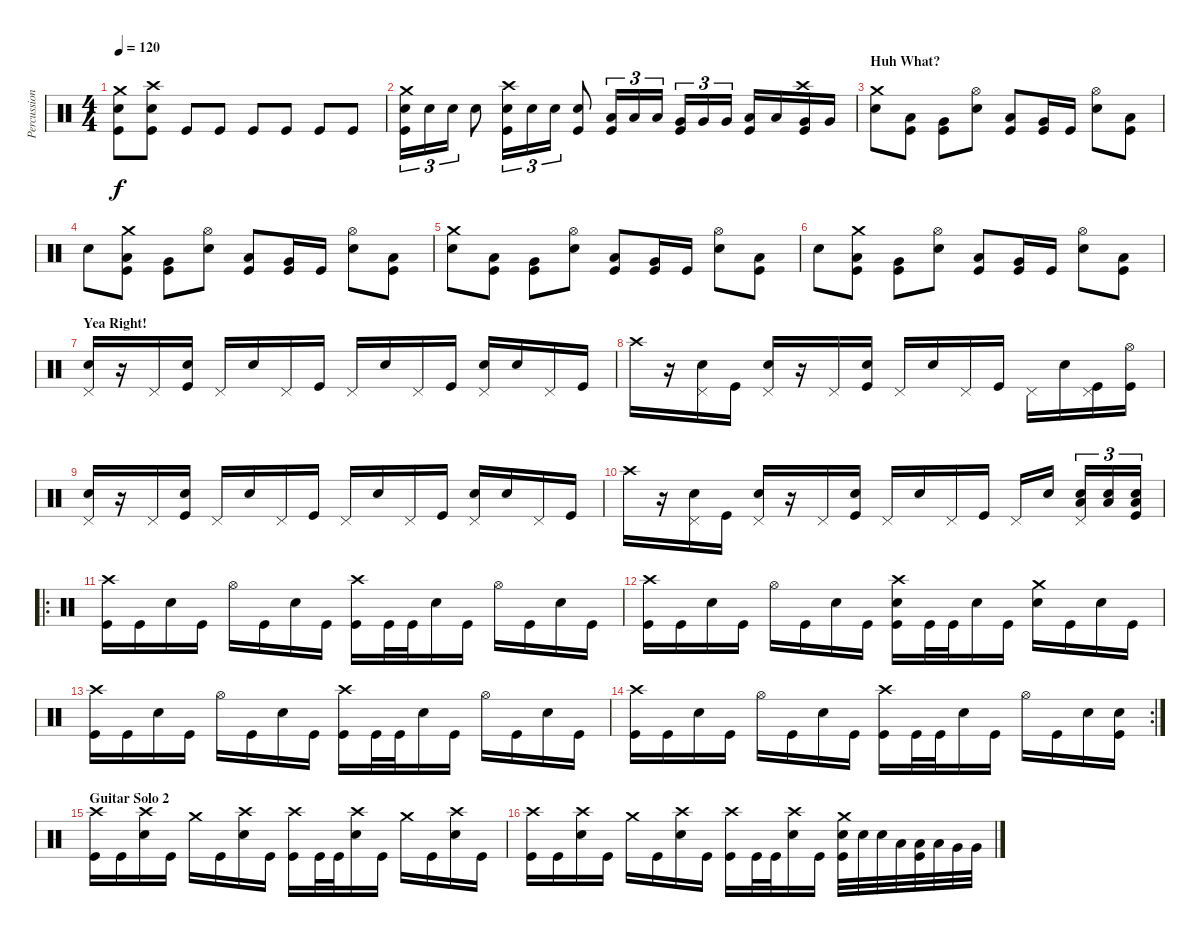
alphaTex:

\track ("Percussions" "Percussion") {instrument percussion}
\staff {score}
\articulation defaults
\ts (4 4)
\tempo 120
\clef neutral
\ks c
("Crash medium (hit)" "Electric Snare (hit)" "Kick (hit)").8{dy f} ("Crash high (hit)" "Electric Snare (hit)" "Kick (hit)").8 "Kick (hit)".8 "Kick (hit)".8 "Kick (hit)".8 "Kick (hit)".8 "Kick (hit)".8 "Kick (hit)".8 |
("Crash medium (hit)" "Electric Snare (hit)" "Kick (hit)").16{tu (3 2)} "Electric Snare (hit)".16{tu (3 2)} "Electric Snare (hit)".16{tu (3 2)} "Electric Snare (hit)".8 ("Crash high (hit)" "Electric Snare (hit)" "Kick (hit)").16{tu (3 2)} "Electric Snare (hit)".16{tu (3 2)} "Electric Snare (hit)".16{tu (3 2)} ("Electric Snare (hit)" "Kick (hit)").8 ("Low Tom (hit)" "Kick (hit)").16{tu (3 2)} "Low Tom (hit)".16{tu (3 2)} "Low Tom (hit)".16{tu (3 2)} ("Very Low Tom (hit)" "Kick (hit)").16{tu (3 2)} "Very Low Tom (hit)".16{tu (3 2)} "Very Low Tom (hit)".16{tu (3 2)} ("Low Tom (hit)" "Kick (hit)").16 "Low Tom (hit)".16 ("Crash high (hit)" "Very Low Tom (hit)" "Kick (hit)").16 "Very Low Tom (hit)".16 |
\section ("" "Huh What?")
("Crash medium (hit)" "Electric Snare (hit)").8 ("Low Tom (hit)" "Kick (hit)").8 ("Very Low Tom (hit)" "Kick (hit)").8 ("Hi-Hat (open)" "Electric Snare (hit)").8 ("Low Tom (hit)" "Kick (hit)").8 ("Very Low Tom (hit)" "Kick (hit)").16 "Kick (hit)".16 ("Hi-Hat (open)" "Electric Snare (hit)").8 ("Low Tom (hit)" "Kick (hit)").8 |
"Electric Snare (hit)".8 ("Crash medium (hit)" "Low Tom (hit)" "Kick (hit)").8 ("Very Low Tom (hit)" "Kick (hit)").8 ("Hi-Hat (open)" "Electric Snare (hit)").8 ("Low Tom (hit)" "Kick (hit)").8 ("Very Low Tom (hit)" "Kick (hit)").16 "Kick (hit)".16 ("Hi-Hat (open)" "Electric Snare (hit)").8 ("Low Tom (hit)" "Kick (hit)").8 |
("Crash medium (hit)" "Electric Snare (hit)").8 ("Low Tom (hit)" "Kick (hit)").8 ("Very Low Tom (hit)" "Kick (hit)").8 ("Hi-Hat (open)" "Electric Snare (hit)").8 ("Low Tom (hit)" "Kick (hit)").8 ("Very Low Tom (hit)" "Kick (hit)").16 "Kick (hit)".16 ("Hi-Hat (open)" "Electric Snare (hit)").8 ("Low Tom (hit)" "Kick (hit)").8 |
"Electric Snare (hit)".8 ("Crash medium (hit)" "Low Tom (hit)" "Kick (hit)").8 ("Very Low Tom (hit)" "Kick (hit)").8 ("Hi-Hat (open)" "Electric Snare (hit)").8 ("Low Tom (hit)" "Kick (hit)").8 ("Very Low Tom (hit)" "Kick (hit)").16 "Kick (hit)".16 ("Hi-Hat (open)" "Electric Snare (hit)").8 ("Low Tom (hit)" "Kick (hit)").8 |
\section ("" "Yea Right!")
("Pedal Hi-Hat (hit)" "Electric Snare (hit)").16 r.16 "Pedal Hi-Hat (hit)".16 ("Kick (hit)" "Electric Snare (hit)").16 "Pedal Hi-Hat (hit)".16 "Electric Snare (hit)".16 "Pedal Hi-Hat (hit)".16 "Kick (hit)".16 "Pedal Hi-Hat (hit)".16 "Electric Snare (hit)".16 "Pedal Hi-Hat (hit)".16 "Kick (hit)".16 ("Pedal Hi-Hat (hit)" "Electric Snare (hit)").16 "Electric Snare (hit)".16 "Pedal Hi-Hat (hit)".16 "Kick (hit)".16 |
"Crash high (hit)".16 r.16 ("Pedal Hi-Hat (hit)" "Electric Snare (hit)").16 "Kick (hit)".16 ("Pedal Hi-Hat (hit)" "Electric Snare (hit)").16 r.16 "Pedal Hi-Hat (hit)".16 ("Kick (hit)" "Electric Snare (hit)").16 "Pedal Hi-Hat (hit)".16 "Electric Snare (hit)".16 "Pedal Hi-Hat (hit)".16 "Kick (hit)".16 "Pedal Hi-Hat (hit)".16 "Electric Snare (hit)".16 ("Pedal Hi-Hat (hit)" "Kick (hit)").16 ("Hi-Hat (open)" "Kick (hit)").16 |
("Pedal Hi-Hat (hit)" "Electric Snare (hit)").16 r.16 "Pedal Hi-Hat (hit)".16 ("Kick (hit)" "Electric Snare (hit)").16 "Pedal Hi-Hat (hit)".16 "Electric Snare (hit)".16 "Pedal Hi-Hat (hit)".16 "Kick (hit)".16 "Pedal Hi-Hat (hit)".16 "Electric Snare (hit)".16 "Pedal Hi-Hat (hit)".16 "Kick (hit)".16 ("Pedal Hi-Hat (hit)" "Electric Snare (hit)").16 "Electric Snare (hit)".16 "Pedal Hi-Hat (hit)".16 "Kick (hit)".16 |
"Crash high (hit)".16 r.16 ("Pedal Hi-Hat (hit)" "Electric Snare (hit)").16 "Kick (hit)".16 ("Pedal Hi-Hat (hit)" "Electric Snare (hit)").16 r.16 "Pedal Hi-Hat (hit)".16 ("Kick (hit)" "Electric Snare (hit)").16 "Pedal Hi-Hat (hit)".16 "Electric Snare (hit)".16 "Pedal Hi-Hat (hit)".16 "Kick (hit)".16 "Pedal Hi-Hat (hit)".16 "Electric Snare (hit)".16 ("Pedal Hi-Hat (hit)" "Electric Snare (hit)" "Low Tom (hit)").16{tu (3 2)} ("Electric Snare (hit)" "Low Tom (hit)").16{tu (3 2)} ("Electric Snare (hit)" "Low Tom (hit)" "Kick (hit)").16{tu (3 2)} |
\ro
("Crash high (hit)" "Kick (hit)").16 "Kick (hit)".16 "Electric Snare (hit)".16 "Kick (hit)".16 "Hi-Hat (open)".16 "Kick (hit)".16 "Electric Snare (hit)".16 "Kick (hit)".16 ("Crash high (hit)" "Kick (hit)").16 "Kick (hit)".32 "Kick (hit)".32 "Electric Snare (hit)".16 "Kick (hit)".16 "Hi-Hat (open)".16 "Kick (hit)".16 "Electric Snare (hit)".16 "Kick (hit)".16 |
("Crash high (hit)" "Kick (hit)").16 "Kick (hit)".16 "Electric Snare (hit)".16 "Kick (hit)".16 "Hi-Hat (open)".16 "Kick (hit)".16 "Electric Snare (hit)".16 "Kick (hit)".16 ("Crash high (hit)" "Electric Snare (hit)" "Kick (hit)").16 "Kick (hit)".32 "Kick (hit)".32 "Electric Snare (hit)".16 "Kick (hit)".16 ("Crash medium (hit)" "Electric Snare (hit)").16 "Kick (hit)".16 "Electric Snare (hit)".16 "Kick (hit)".16 |
("Crash high (hit)" "Kick (hit)").16 "Kick (hit)".16 "Electric Snare (hit)".16 "Kick (hit)".16 "Hi-Hat (open)".16 "Kick (hit)".16 "Electric Snare (hit)".16 "Kick (hit)".16 ("Crash high (hit)" "Kick (hit)").16 "Kick (hit)".32 "Kick (hit)".32 "Electric Snare (hit)".16 "Kick (hit)".16 "Hi-Hat (open)".16 "Kick (hit)".16 "Electric Snare (hit)".16 "Kick (hit)".16 |
\rc 2
("Crash high (hit)" "Kick (hit)").16 "Kick (hit)".16 "Electric Snare (hit)".16 "Kick (hit)".16 "Hi-Hat (open)".16 "Kick (hit)".16 "Electric Snare (hit)".16 "Kick (hit)".16 ("Crash high (hit)" "Kick (hit)").16 "Kick (hit)".32 "Kick (hit)".32 "Electric Snare (hit)".16 "Kick (hit)".16 "Hi-Hat (open)".16 "Kick (hit)".16 "Electric Snare (hit)".16 ("Electric Snare (hit)" "Kick (hit)").16 |
\section ("" "Guitar Solo 2")
("Crash high (hit)" "Kick (hit)").16 "Kick (hit)".16 ("Crash high (hit)" "Electric Snare (hit)").16 "Kick (hit)".16 "Crash medium (hit)".16 "Kick (hit)".16 ("Crash high (hit)" "Electric Snare (hit)").16 "Kick (hit)".16 ("Crash high (hit)" "Kick (hit)").16 "Kick (hit)".32 "Kick (hit)".32 ("Crash high (hit)" "Electric Snare (hit)").16 "Kick (hit)".16 "Crash medium (hit)".16 "Kick (hit)".16 ("Crash high (hit)" "Electric Snare (hit)").16 "Kick (hit)".16 |
("Crash high (hit)" "Kick (hit)").16 "Kick (hit)".16 ("Crash high (hit)" "Electric Snare (hit)").16 "Kick (hit)".16 "Crash medium (hit)".16 "Kick (hit)".16 ("Crash high (hit)" "Electric Snare (hit)").16 "Kick (hit)".16 ("Crash high (hit)" "Kick (hit)").16 "Kick (hit)".32 "Kick (hit)".32 ("Crash high (hit)" "Electric Snare (hit)").16 "Kick (hit)".16 ("Crash medium (hit)" "Electric Snare (hit)" "Kick (hit)").32 "Electric Snare (hit)".32 "Electric Snare (hit)".32 "Low Tom (hit)".32 ("Low Tom (hit)" "Kick (hit)").32 "Low Tom (hit)".32 "Very Low Tom (hit)".32 "Very Low Tom (hit)".32
